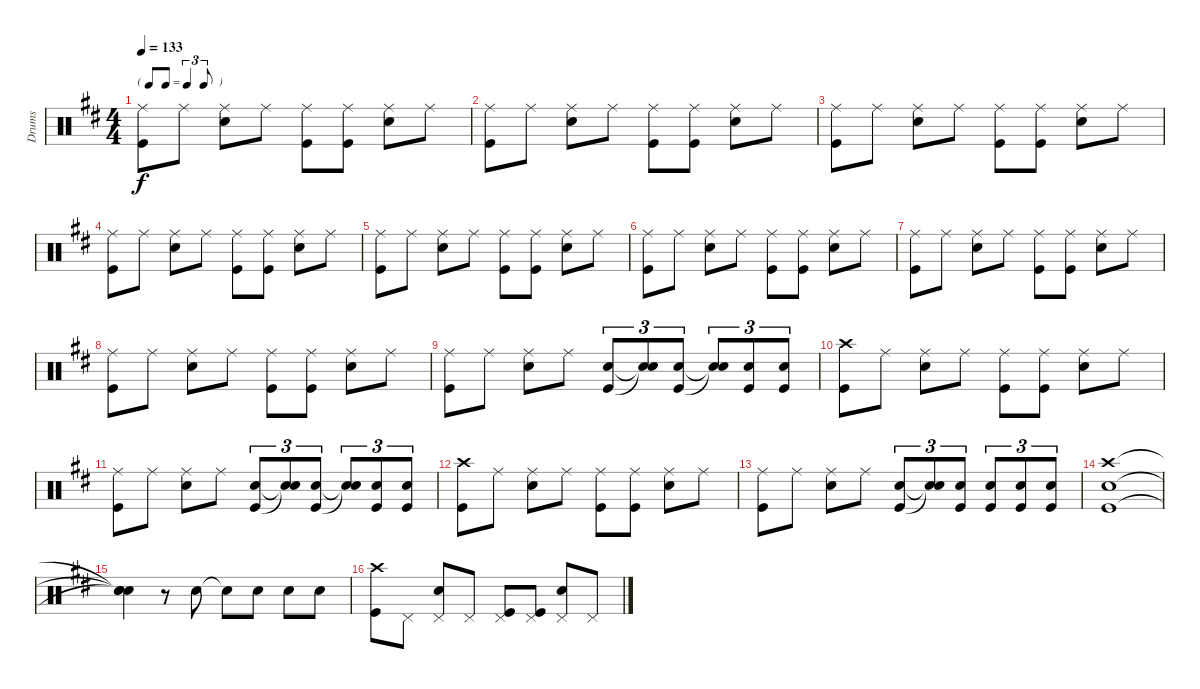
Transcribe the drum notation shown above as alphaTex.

\track ("Drums" "Drums") {instrument percussion}
\staff {score}
\articulation defaults
\ts (4 4)
\tf triplet8th
\tempo 133
\clef neutral
\ks d
("Ride (middle)" "Kick (hit)").8{dy f} "Ride (middle)".8 ("Ride (middle)" "Snare (hit) 2").8 "Ride (middle)".8 ("Ride (middle)" "Kick (hit)").8 ("Ride (middle)" "Kick (hit)").8 ("Ride (middle)" "Snare (hit) 2").8 "Ride (middle)".8 |
("Ride (middle)" "Kick (hit)").8 "Ride (middle)".8 ("Ride (middle)" "Snare (hit) 2").8 "Ride (middle)".8 ("Ride (middle)" "Kick (hit)").8 ("Ride (middle)" "Kick (hit)").8 ("Ride (middle)" "Snare (hit) 2").8 "Ride (middle)".8 |
("Ride (middle)" "Kick (hit)").8 "Ride (middle)".8 ("Ride (middle)" "Snare (hit) 2").8 "Ride (middle)".8 ("Ride (middle)" "Kick (hit)").8 ("Ride (middle)" "Kick (hit)").8 ("Ride (middle)" "Snare (hit) 2").8 "Ride (middle)".8 |
("Ride (middle)" "Kick (hit)").8 "Ride (middle)".8 ("Ride (middle)" "Snare (hit) 2").8 "Ride (middle)".8 ("Ride (middle)" "Kick (hit)").8 ("Ride (middle)" "Kick (hit)").8 ("Ride (middle)" "Snare (hit) 2").8 "Ride (middle)".8 |
("Ride (middle)" "Kick (hit)").8 "Ride (middle)".8 ("Ride (middle)" "Snare (hit) 2").8 "Ride (middle)".8 ("Ride (middle)" "Kick (hit)").8 ("Ride (middle)" "Kick (hit)").8 ("Ride (middle)" "Snare (hit) 2").8 "Ride (middle)".8 |
("Ride (middle)" "Kick (hit)").8 "Ride (middle)".8 ("Ride (middle)" "Snare (hit) 2").8 "Ride (middle)".8 ("Ride (middle)" "Kick (hit)").8 ("Ride (middle)" "Kick (hit)").8 ("Ride (middle)" "Snare (hit) 2").8 "Ride (middle)".8 |
("Ride (middle)" "Kick (hit)").8 "Ride (middle)".8 ("Ride (middle)" "Snare (hit) 2").8 "Ride (middle)".8 ("Ride (middle)" "Kick (hit)").8 ("Ride (middle)" "Kick (hit)").8 ("Ride (middle)" "Snare (hit) 2").8 "Ride (middle)".8 |
("Ride (middle)" "Kick (hit)").8 "Ride (middle)".8 ("Ride (middle)" "Snare (hit) 2").8 "Ride (middle)".8 ("Ride (middle)" "Kick (hit)").8 ("Ride (middle)" "Kick (hit)").8 ("Ride (middle)" "Snare (hit) 2").8 "Ride (middle)".8 |
("Ride (middle)" "Kick (hit)").8 "Ride (middle)".8 ("Ride (middle)" "Snare (hit) 2").8 "Ride (middle)".8 ("Snare (hit) 2" "Kick (hit)").8{tu (3 2)} ("Snare (hit)"{t} "Snare (hit)"{t}).8{tu (3 2)} ("Snare (hit) 2" "Kick (hit)").8{tu (3 2)} ("Snare (hit)"{t} "Snare (hit)"{t}).8{tu (3 2)} ("Snare (hit) 2" "Kick (hit)").8{tu (3 2)} ("Snare (hit) 2" "Kick (hit)").8{tu (3 2)} |
("Crash high (hit)" "Kick (hit)").8 "Ride (middle)".8 ("Ride (middle)" "Snare (hit) 2").8 "Ride (middle)".8 ("Ride (middle)" "Kick (hit)").8 ("Ride (middle)" "Kick (hit)").8 ("Ride (middle)" "Snare (hit) 2").8 "Ride (middle)".8 |
("Ride (middle)" "Kick (hit)").8 "Ride (middle)".8 ("Ride (middle)" "Snare (hit) 2").8 "Ride (middle)".8 ("Snare (hit) 2" "Kick (hit)").8{tu (3 2)} ("Snare (hit)"{t} "Snare (hit)"{t}).8{tu (3 2)} ("Snare (hit) 2" "Kick (hit)").8{tu (3 2)} ("Snare (hit)"{t} "Snare (hit)"{t}).8{tu (3 2)} ("Snare (hit) 2" "Kick (hit)").8{tu (3 2)} ("Snare (hit) 2" "Kick (hit)").8{tu (3 2)} |
("Crash high (hit)" "Kick (hit)").8 "Ride (middle)".8 ("Ride (middle)" "Snare (hit) 2").8 "Ride (middle)".8 ("Ride (middle)" "Kick (hit)").8 ("Ride (middle)" "Kick (hit)").8 ("Ride (middle)" "Snare (hit) 2").8 "Ride (middle)".8 |
("Ride (middle)" "Kick (hit)").8 "Ride (middle)".8 ("Ride (middle)" "Snare (hit) 2").8 "Ride (middle)".8 ("Snare (hit) 2" "Kick (hit)").8{tu (3 2)} ("Snare (hit)"{t} "Snare (hit)"{t}).8{tu (3 2)} ("Snare (hit) 2" "Kick (hit)").8{tu (3 2)} ("Snare (hit) 2" "Kick (hit)").8{tu (3 2)} ("Snare (hit) 2" "Kick (hit)").8{tu (3 2)} ("Snare (hit) 2" "Kick (hit)").8{tu (3 2)} |
("Crash high (hit)" "Kick (hit)" "Snare (hit) 2").1 |
("Snare (hit)"{t} "Snare (hit)"{t} "Snare (hit)"{t}).4 r.8 "Snare (hit) 2".8 "Snare (hit)"{t}.8 "Snare (hit) 2".8 "Snare (hit) 2".8 "Snare (hit) 2".8 |
("Crash high (hit)" "Kick (hit)").8 "Pedal Hi-Hat (hit)".8 ("Pedal Hi-Hat (hit)" "Snare (hit) 2").8 "Pedal Hi-Hat (hit)".8 ("Pedal Hi-Hat (hit)" "Kick (hit)").8 ("Pedal Hi-Hat (hit)" "Kick (hit)").8 ("Pedal Hi-Hat (hit)" "Snare (hit) 2").8 "Pedal Hi-Hat (hit)".8
